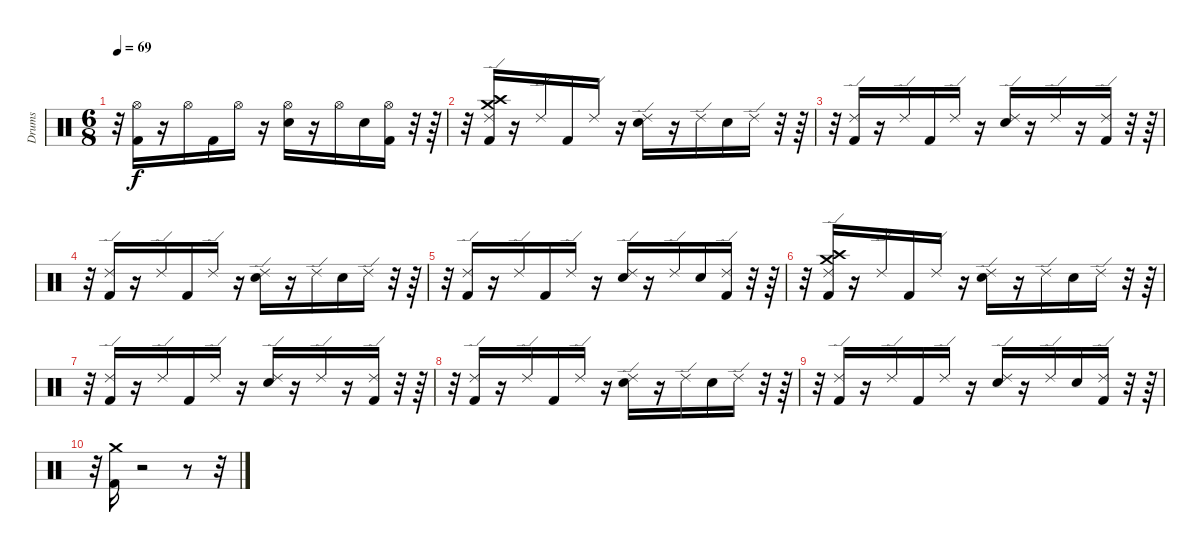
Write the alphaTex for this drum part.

\track ("Drums" "Drums") {instrument percussion}
\staff {score}
\articulation defaults
\ts (6 8)
\tempo 69
\clef neutral
\ks c
r.32{dy f} ("Kick (hit) 2" "Hi-Hat (open)").16 r.16 "Hi-Hat (open)".16 "Kick (hit) 2".16 "Hi-Hat (open)".16 r.16 ("Snare (hit) 2" "Hi-Hat (open)").16 r.16 "Hi-Hat (open)".16 "Snare (hit) 2".16 ("Kick (hit) 2" "Hi-Hat (open)").16 r.32 r.64 |
r.32 ("Crash high (hit)" "Crash medium (hit)" "Kick (hit) 2" "Ride (edge) 2").16 r.16 "Ride (edge) 2".16 "Kick (hit) 2".16 "Ride (edge) 2".16 r.16 ("Ride (edge) 2" "Snare (hit) 2").16 r.16 "Ride (edge) 2".16 "Snare (hit) 2".16 "Ride (edge) 2".16 r.32 r.64 |
r.32 ("Kick (hit) 2" "Ride (edge) 2").16 r.16 "Ride (edge) 2".16 "Kick (hit) 2".16 "Ride (edge) 2".16 r.16 ("Snare (hit) 2" "Ride (edge) 2").16 r.16 "Ride (edge) 2".16 r.16 ("Ride (edge) 2" "Kick (hit) 2").16 r.32 r.64 |
r.32 ("Kick (hit) 2" "Ride (edge) 2").16 r.16 "Ride (edge) 2".16 "Kick (hit) 2".16 "Ride (edge) 2".16 r.16 ("Ride (edge) 2" "Snare (hit) 2").16 r.16 "Ride (edge) 2".16 "Snare (hit) 2".16 "Ride (edge) 2".16 r.32 r.64 |
r.32 ("Kick (hit) 2" "Ride (edge) 2").16 r.16 "Ride (edge) 2".16 "Kick (hit) 2".16 "Ride (edge) 2".16 r.16 ("Snare (hit) 2" "Ride (edge) 2").16 r.16 "Ride (edge) 2".16 "Snare (hit) 2".16 ("Kick (hit) 2" "Ride (edge) 2").16 r.32 r.64 |
r.32 ("Crash high (hit)" "Crash medium (hit)" "Kick (hit) 2" "Ride (edge) 2").16 r.16 "Ride (edge) 2".16 "Kick (hit) 2".16 "Ride (edge) 2".16 r.16 ("Ride (edge) 2" "Snare (hit) 2").16 r.16 "Ride (edge) 2".16 "Snare (hit) 2".16 "Ride (edge) 2".16 r.32 r.64 |
r.32 ("Kick (hit) 2" "Ride (edge) 2").16 r.16 "Ride (edge) 2".16 "Kick (hit) 2".16 "Ride (edge) 2".16 r.16 ("Snare (hit) 2" "Ride (edge) 2").16 r.16 "Ride (edge) 2".16 r.16 ("Ride (edge) 2" "Kick (hit) 2").16 r.32 r.64 |
r.32 ("Kick (hit) 2" "Ride (edge) 2").16 r.16 "Ride (edge) 2".16 "Kick (hit) 2".16 "Ride (edge) 2".16 r.16 ("Ride (edge) 2" "Snare (hit) 2").16 r.16 "Ride (edge) 2".16 "Snare (hit) 2".16 "Ride (edge) 2".16 r.32 r.64 |
r.32 ("Kick (hit) 2" "Ride (edge) 2").16 r.16 "Ride (edge) 2".16 "Kick (hit) 2".16 "Ride (edge) 2".16 r.16 ("Snare (hit) 2" "Ride (edge) 2").16 r.16 "Ride (edge) 2".16 "Snare (hit) 2".16 ("Kick (hit) 2" "Ride (edge) 2").16 r.32 r.64 |
r.32 ("Crash medium (hit)" "Kick (hit) 2").16 r.2 r.8 r.32
